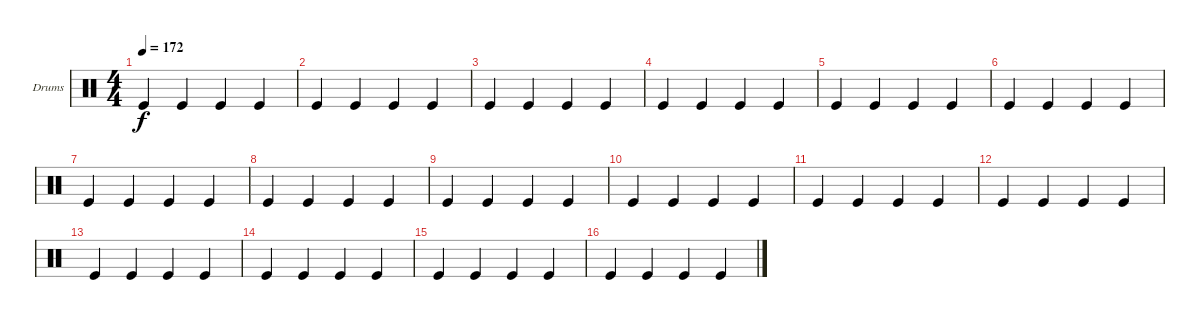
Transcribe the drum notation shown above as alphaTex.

\bracketExtendMode groupsimilarinstruments
\firstSystemTrackNameOrientation horizontal
\otherSystemsTrackNameOrientation horizontal
\track ("Drumkit" "Drums") {instrument percussion}
\staff {score}
\articulation defaults
\ts (4 4)
\tempo 172
\clef neutral
\ks c "Kick (hit)".4{dy f} "Kick (hit)".4 "Kick (hit)".4 "Kick (hit)".4
|
"Kick (hit)".4 "Kick (hit)".4 "Kick (hit)".4 "Kick (hit)".4 |
"Kick (hit)".4 "Kick (hit)".4 "Kick (hit)".4 "Kick (hit)".4 |
"Kick (hit)".4 "Kick (hit)".4 "Kick (hit)".4 "Kick (hit)".4 |
"Kick (hit)".4 "Kick (hit)".4 "Kick (hit)".4 "Kick (hit)".4 |
"Kick (hit)".4 "Kick (hit)".4 "Kick (hit)".4 "Kick (hit)".4 |
"Kick (hit)".4 "Kick (hit)".4 "Kick (hit)".4 "Kick (hit)".4 |
"Kick (hit)".4 "Kick (hit)".4 "Kick (hit)".4 "Kick (hit)".4 |
"Kick (hit)".4 "Kick (hit)".4 "Kick (hit)".4 "Kick (hit)".4 |
"Kick (hit)".4 "Kick (hit)".4 "Kick (hit)".4 "Kick (hit)".4 |
"Kick (hit)".4 "Kick (hit)".4 "Kick (hit)".4 "Kick (hit)".4 |
"Kick (hit)".4 "Kick (hit)".4 "Kick (hit)".4 "Kick (hit)".4 |
"Kick (hit)".4 "Kick (hit)".4 "Kick (hit)".4 "Kick (hit)".4 |
"Kick (hit)".4 "Kick (hit)".4 "Kick (hit)".4 "Kick (hit)".4 |
"Kick (hit)".4 "Kick (hit)".4 "Kick (hit)".4 "Kick (hit)".4 |
"Kick (hit)".4 "Kick (hit)".4 "Kick (hit)".4 "Kick (hit)".4
